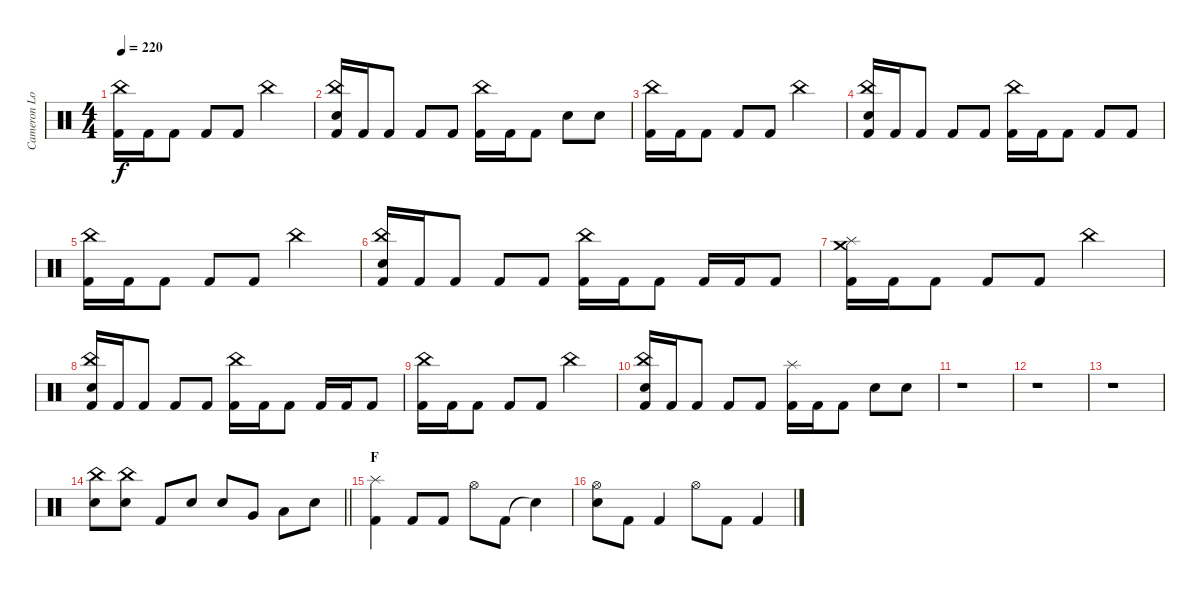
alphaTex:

\track ("Cameron Losch - Drums" "Cameron Lo") {instrument percussion}
\staff {score}
\articulation defaults
\ts (4 4)
\tempo 220
\clef neutral
\ks c
("Kick (hit) 2" "China (hit)").16{dy f} "Kick (hit) 2".16 "Kick (hit) 2".8 "Kick (hit) 2".8 "Kick (hit) 2".8 "China (hit)".2 |
("Kick (hit) 2" "Electric Snare (hit)" "China (hit)").16 "Kick (hit) 2".16 "Kick (hit) 2".8 "Kick (hit) 2".8 "Kick (hit) 2".8 ("Kick (hit) 2" "China (hit)").16 "Kick (hit) 2".16 "Kick (hit) 2".8 "Electric Snare (hit)".8 "Electric Snare (hit)".8 |
("Kick (hit) 2" "China (hit)").16 "Kick (hit) 2".16 "Kick (hit) 2".8 "Kick (hit) 2".8 "Kick (hit) 2".8 "China (hit)".2 |
("Kick (hit) 2" "Electric Snare (hit)" "China (hit)").16 "Kick (hit) 2".16 "Kick (hit) 2".8 "Kick (hit) 2".8 "Kick (hit) 2".8 ("Kick (hit) 2" "China (hit)").16 "Kick (hit) 2".16 "Kick (hit) 2".8 "Kick (hit) 2".8 "Kick (hit) 2".8 |
("Kick (hit) 2" "China (hit)").16 "Kick (hit) 2".16 "Kick (hit) 2".8 "Kick (hit) 2".8 "Kick (hit) 2".8 "China (hit)".2 |
("Kick (hit) 2" "Electric Snare (hit)" "China (hit)").16 "Kick (hit) 2".16 "Kick (hit) 2".8 "Kick (hit) 2".8 "Kick (hit) 2".8 ("Kick (hit) 2" "China (hit)").16 "Kick (hit) 2".16 "Kick (hit) 2".8 "Kick (hit) 2".16 "Kick (hit) 2".16 "Kick (hit) 2".8 |
("Kick (hit) 2" "Splash (hit)" "Crash medium (hit)").16 "Kick (hit) 2".16 "Kick (hit) 2".8 "Kick (hit) 2".8 "Kick (hit) 2".8 "China (hit)".2 |
("Kick (hit) 2" "Electric Snare (hit)" "China (hit)").16 "Kick (hit) 2".16 "Kick (hit) 2".8 "Kick (hit) 2".8 "Kick (hit) 2".8 ("Kick (hit) 2" "China (hit)").16 "Kick (hit) 2".16 "Kick (hit) 2".8 "Kick (hit) 2".16 "Kick (hit) 2".16 "Kick (hit) 2".8 |
("Kick (hit) 2" "China (hit)").16 "Kick (hit) 2".16 "Kick (hit) 2".8 "Kick (hit) 2".8 "Kick (hit) 2".8 "China (hit)".2 |
("Kick (hit) 2" "Electric Snare (hit)" "China (hit)").16 "Kick (hit) 2".16 "Kick (hit) 2".8 "Kick (hit) 2".8 "Kick (hit) 2".8 ("Kick (hit) 2" "Splash (hit)").16 "Kick (hit) 2".16 "Kick (hit) 2".8 "Electric Snare (hit)".8 "Electric Snare (hit)".8 |
r.1 |
r.1 |
r.1 |
\barLineRight lightlight
("Electric Snare (hit)" "China (hit)").8 ("Electric Snare (hit)" "China (hit)").8 "Kick (hit) 2".8 "Electric Snare (hit)".8 "Electric Snare (hit)".8 "Very Low Tom (hit)".8 "Low Floor Tom (hit)".8 "Electric Snare (hit)".8 |
\section ("" "F")
("Kick (hit) 2" "Splash (hit)").4 "Kick (hit) 2".8 "Kick (hit) 2".8 "Hi-Hat (open)".8 "Kick (hit) 2".8 "Snare (hit)"{t}.4 |
("Electric Snare (hit)" "Hi-Hat (open)").8 "Kick (hit) 2".8 "Kick (hit) 2".4 "Hi-Hat (open)".8 "Kick (hit) 2".8 "Kick (hit) 2".4
